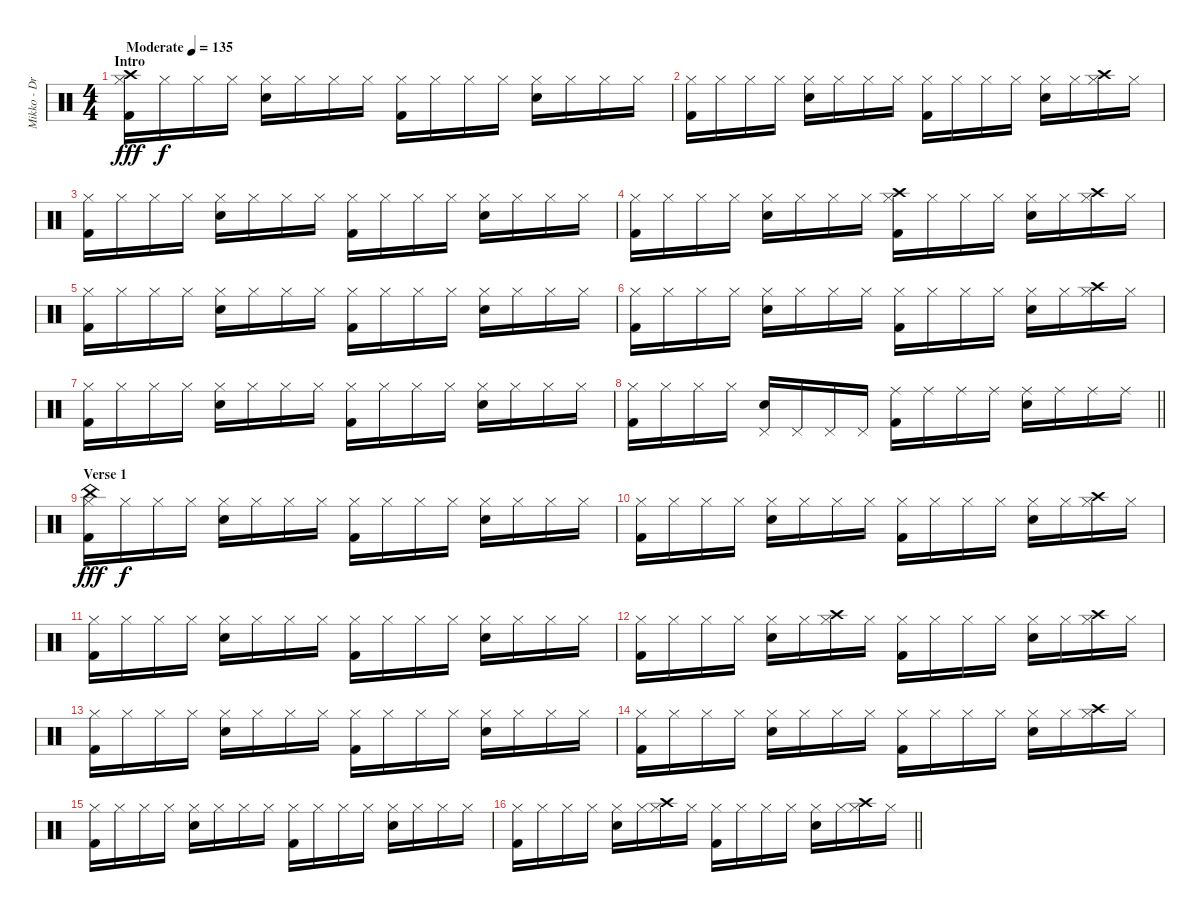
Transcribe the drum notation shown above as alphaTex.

\track ("Mikko - Drums" "Mikko - Dr") {instrument percussion}
\staff {score}
\articulation defaults
\ts (4 4)
\section ("" "Intro")
\tempo (135 "Moderate")
\clef neutral
\ks c
("Hi-Hat (closed)" "Crash high (hit)" "Kick (hit) 2").16{dy fff} "Hi-Hat (closed)".16{dy f} "Hi-Hat (closed)".16 "Hi-Hat (closed)".16 ("Hi-Hat (closed)" "Snare (hit) 2").16 "Hi-Hat (closed)".16 "Hi-Hat (closed)".16 "Hi-Hat (closed)".16 ("Hi-Hat (closed)" "Kick (hit) 2").16 "Hi-Hat (closed)".16 "Hi-Hat (closed)".16 "Hi-Hat (closed)".16 ("Hi-Hat (closed)" "Snare (hit) 2").16 "Hi-Hat (closed)".16 "Hi-Hat (closed)".16 "Hi-Hat (closed)".16 |
("Hi-Hat (closed)" "Kick (hit) 2").16 "Hi-Hat (closed)".16 "Hi-Hat (closed)".16 "Hi-Hat (closed)".16 ("Hi-Hat (closed)" "Snare (hit) 2").16 "Hi-Hat (closed)".16 "Hi-Hat (closed)".16 "Hi-Hat (closed)".16 ("Hi-Hat (closed)" "Kick (hit) 2").16 "Hi-Hat (closed)".16 "Hi-Hat (closed)".16 "Hi-Hat (closed)".16 ("Hi-Hat (closed)" "Snare (hit) 2").16 "Hi-Hat (closed)".16 ("Hi-Hat (closed)" "Crash high (hit)").16 "Hi-Hat (closed)".16 |
("Hi-Hat (closed)" "Kick (hit) 2").16 "Hi-Hat (closed)".16 "Hi-Hat (closed)".16 "Hi-Hat (closed)".16 ("Hi-Hat (closed)" "Snare (hit) 2").16 "Hi-Hat (closed)".16 "Hi-Hat (closed)".16 "Hi-Hat (closed)".16 ("Hi-Hat (closed)" "Kick (hit) 2").16 "Hi-Hat (closed)".16 "Hi-Hat (closed)".16 "Hi-Hat (closed)".16 ("Hi-Hat (closed)" "Snare (hit) 2").16 "Hi-Hat (closed)".16 "Hi-Hat (closed)".16 "Hi-Hat (closed)".16 |
("Hi-Hat (closed)" "Kick (hit) 2").16 "Hi-Hat (closed)".16 "Hi-Hat (closed)".16 "Hi-Hat (closed)".16 ("Hi-Hat (closed)" "Snare (hit) 2").16 "Hi-Hat (closed)".16 "Hi-Hat (closed)".16 "Hi-Hat (closed)".16 ("Hi-Hat (closed)" "Crash high (hit)" "Kick (hit) 2").16 "Hi-Hat (closed)".16 "Hi-Hat (closed)".16 "Hi-Hat (closed)".16 ("Hi-Hat (closed)" "Snare (hit) 2").16 "Hi-Hat (closed)".16 ("Hi-Hat (closed)" "Crash high (hit)").16 "Hi-Hat (closed)".16 |
("Hi-Hat (closed)" "Kick (hit) 2").16 "Hi-Hat (closed)".16 "Hi-Hat (closed)".16 "Hi-Hat (closed)".16 ("Hi-Hat (closed)" "Snare (hit) 2").16 "Hi-Hat (closed)".16 "Hi-Hat (closed)".16 "Hi-Hat (closed)".16 ("Hi-Hat (closed)" "Kick (hit) 2").16 "Hi-Hat (closed)".16 "Hi-Hat (closed)".16 "Hi-Hat (closed)".16 ("Hi-Hat (closed)" "Snare (hit) 2").16 "Hi-Hat (closed)".16 "Hi-Hat (closed)".16 "Hi-Hat (closed)".16 |
("Hi-Hat (closed)" "Kick (hit) 2").16 "Hi-Hat (closed)".16 "Hi-Hat (closed)".16 "Hi-Hat (closed)".16 ("Hi-Hat (closed)" "Snare (hit) 2").16 "Hi-Hat (closed)".16 "Hi-Hat (closed)".16 "Hi-Hat (closed)".16 ("Hi-Hat (closed)" "Kick (hit) 2").16 "Hi-Hat (closed)".16 "Hi-Hat (closed)".16 "Hi-Hat (closed)".16 ("Hi-Hat (closed)" "Snare (hit) 2").16 "Hi-Hat (closed)".16 ("Hi-Hat (closed)" "Crash high (hit)").16 "Hi-Hat (closed)".16 |
("Hi-Hat (closed)" "Kick (hit) 2").16 "Hi-Hat (closed)".16 "Hi-Hat (closed)".16 "Hi-Hat (closed)".16 ("Hi-Hat (closed)" "Snare (hit) 2").16 "Hi-Hat (closed)".16 "Hi-Hat (closed)".16 "Hi-Hat (closed)".16 ("Hi-Hat (closed)" "Kick (hit) 2").16 "Hi-Hat (closed)".16 "Hi-Hat (closed)".16 "Hi-Hat (closed)".16 ("Hi-Hat (closed)" "Snare (hit) 2").16 "Hi-Hat (closed)".16 "Hi-Hat (closed)".16 "Hi-Hat (closed)".16 |
\barLineRight lightlight
("Hi-Hat (closed)" "Kick (hit) 2").16 "Hi-Hat (closed)".16 "Hi-Hat (closed)".16 "Hi-Hat (closed)".16 ("Pedal Hi-Hat (hit)" "Snare (hit) 2").16 "Pedal Hi-Hat (hit)".16 "Pedal Hi-Hat (hit)".16 "Pedal Hi-Hat (hit)".16 ("Ride (middle)" "Kick (hit) 2").16 "Ride (middle)".16 "Ride (middle)".16 "Ride (middle)".16 ("Ride (middle)" "Snare (hit) 2").16 "Ride (middle)".16 "Ride (middle)".16 "Ride (middle)".16 |
\section ("" "Verse 1")
("Hi-Hat (closed)" "China (hit)" "Kick (hit) 2").16{dy fff} "Hi-Hat (closed)".16{dy f} "Hi-Hat (closed)".16 "Hi-Hat (closed)".16 ("Hi-Hat (closed)" "Snare (hit) 2").16 "Hi-Hat (closed)".16 "Hi-Hat (closed)".16 "Hi-Hat (closed)".16 ("Hi-Hat (closed)" "Kick (hit) 2").16 "Hi-Hat (closed)".16 "Hi-Hat (closed)".16 "Hi-Hat (closed)".16 ("Hi-Hat (closed)" "Snare (hit) 2").16 "Hi-Hat (closed)".16 "Hi-Hat (closed)".16 "Hi-Hat (closed)".16 |
("Hi-Hat (closed)" "Kick (hit) 2").16 "Hi-Hat (closed)".16 "Hi-Hat (closed)".16 "Hi-Hat (closed)".16 ("Hi-Hat (closed)" "Snare (hit) 2").16 "Hi-Hat (closed)".16 "Hi-Hat (closed)".16 "Hi-Hat (closed)".16 ("Hi-Hat (closed)" "Kick (hit) 2").16 "Hi-Hat (closed)".16 "Hi-Hat (closed)".16 "Hi-Hat (closed)".16 ("Hi-Hat (closed)" "Snare (hit) 2").16 "Hi-Hat (closed)".16 ("Hi-Hat (closed)" "Crash high (hit)").16 "Hi-Hat (closed)".16 |
("Hi-Hat (closed)" "Kick (hit) 2").16 "Hi-Hat (closed)".16 "Hi-Hat (closed)".16 "Hi-Hat (closed)".16 ("Hi-Hat (closed)" "Snare (hit) 2").16 "Hi-Hat (closed)".16 "Hi-Hat (closed)".16 "Hi-Hat (closed)".16 ("Hi-Hat (closed)" "Kick (hit) 2").16 "Hi-Hat (closed)".16 "Hi-Hat (closed)".16 "Hi-Hat (closed)".16 ("Hi-Hat (closed)" "Snare (hit) 2").16 "Hi-Hat (closed)".16 "Hi-Hat (closed)".16 "Hi-Hat (closed)".16 |
("Hi-Hat (closed)" "Kick (hit) 2").16 "Hi-Hat (closed)".16 "Hi-Hat (closed)".16 "Hi-Hat (closed)".16 ("Hi-Hat (closed)" "Snare (hit) 2").16 "Hi-Hat (closed)".16 ("Hi-Hat (closed)" "Crash high (hit)").16 "Hi-Hat (closed)".16 ("Hi-Hat (closed)" "Kick (hit) 2").16 "Hi-Hat (closed)".16 "Hi-Hat (closed)".16 "Hi-Hat (closed)".16 ("Hi-Hat (closed)" "Snare (hit) 2").16 "Hi-Hat (closed)".16 ("Hi-Hat (closed)" "Crash high (hit)").16 "Hi-Hat (closed)".16 |
("Hi-Hat (closed)" "Kick (hit) 2").16 "Hi-Hat (closed)".16 "Hi-Hat (closed)".16 "Hi-Hat (closed)".16 ("Hi-Hat (closed)" "Snare (hit) 2").16 "Hi-Hat (closed)".16 "Hi-Hat (closed)".16 "Hi-Hat (closed)".16 ("Hi-Hat (closed)" "Kick (hit) 2").16 "Hi-Hat (closed)".16 "Hi-Hat (closed)".16 "Hi-Hat (closed)".16 ("Hi-Hat (closed)" "Snare (hit) 2").16 "Hi-Hat (closed)".16 "Hi-Hat (closed)".16 "Hi-Hat (closed)".16 |
("Hi-Hat (closed)" "Kick (hit) 2").16 "Hi-Hat (closed)".16 "Hi-Hat (closed)".16 "Hi-Hat (closed)".16 ("Hi-Hat (closed)" "Snare (hit) 2").16 "Hi-Hat (closed)".16 "Hi-Hat (closed)".16 "Hi-Hat (closed)".16 ("Hi-Hat (closed)" "Kick (hit) 2").16 "Hi-Hat (closed)".16 "Hi-Hat (closed)".16 "Hi-Hat (closed)".16 ("Hi-Hat (closed)" "Snare (hit) 2").16 "Hi-Hat (closed)".16 ("Hi-Hat (closed)" "Crash high (hit)").16 "Hi-Hat (closed)".16 |
("Hi-Hat (closed)" "Kick (hit) 2").16 "Hi-Hat (closed)".16 "Hi-Hat (closed)".16 "Hi-Hat (closed)".16 ("Hi-Hat (closed)" "Snare (hit) 2").16 "Hi-Hat (closed)".16 "Hi-Hat (closed)".16 "Hi-Hat (closed)".16 ("Hi-Hat (closed)" "Kick (hit) 2").16 "Hi-Hat (closed)".16 "Hi-Hat (closed)".16 "Hi-Hat (closed)".16 ("Hi-Hat (closed)" "Snare (hit) 2").16 "Hi-Hat (closed)".16 "Hi-Hat (closed)".16 "Hi-Hat (closed)".16 |
\barLineRight lightlight
("Hi-Hat (closed)" "Kick (hit) 2").16 "Hi-Hat (closed)".16 "Hi-Hat (closed)".16 "Hi-Hat (closed)".16 ("Hi-Hat (closed)" "Snare (hit) 2").16 "Hi-Hat (closed)".16 ("Hi-Hat (closed)" "Crash high (hit)").16 "Hi-Hat (closed)".16 ("Hi-Hat (closed)" "Kick (hit) 2").16 "Hi-Hat (closed)".16 "Hi-Hat (closed)".16 "Hi-Hat (closed)".16 ("Hi-Hat (closed)" "Snare (hit) 2").16 "Hi-Hat (closed)".16 ("Hi-Hat (closed)" "Crash high (hit)").16 "Hi-Hat (closed)".16
